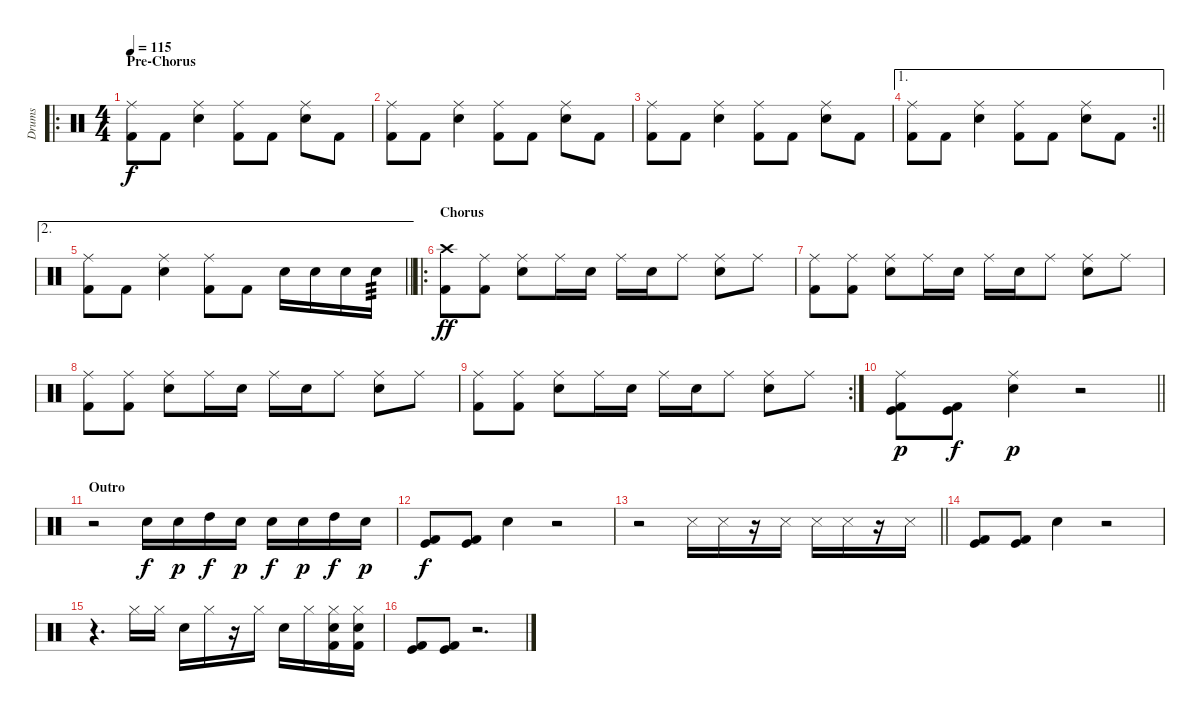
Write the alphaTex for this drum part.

\track ("Drums" "Drums") {instrument percussion}
\staff {score}
\articulation defaults
\ro
\ts (4 4)
\section ("" "Pre-Chorus")
\tempo 115
\clef neutral
\ks c
("Ride (middle)" "Kick (hit) 2").8{dy f} "Kick (hit) 2".8 ("Ride (middle)" "Electric Snare (hit)").4 ("Ride (middle)" "Kick (hit) 2").8 "Kick (hit) 2".8 ("Ride (middle)" "Electric Snare (hit)").8 "Kick (hit) 2".8 |
("Ride (middle)" "Kick (hit) 2").8 "Kick (hit) 2".8 ("Ride (middle)" "Electric Snare (hit)").4 ("Ride (middle)" "Kick (hit) 2").8 "Kick (hit) 2".8 ("Ride (middle)" "Electric Snare (hit)").8 "Kick (hit) 2".8 |
("Ride (middle)" "Kick (hit) 2").8 "Kick (hit) 2".8 ("Ride (middle)" "Electric Snare (hit)").4 ("Ride (middle)" "Kick (hit) 2").8 "Kick (hit) 2".8 ("Ride (middle)" "Electric Snare (hit)").8 "Kick (hit) 2".8 |
\ae 1
\rc 2
\barLineRight lightlight
("Ride (middle)" "Kick (hit) 2").8 "Kick (hit) 2".8 ("Ride (middle)" "Electric Snare (hit)").4 ("Ride (middle)" "Kick (hit) 2").8 "Kick (hit) 2".8 ("Ride (middle)" "Electric Snare (hit)").8 "Kick (hit) 2".8 |
\ae 2
\barLineRight lightlight
("Ride (middle)" "Kick (hit) 2").8 "Kick (hit) 2".8 ("Ride (middle)" "Electric Snare (hit)").4 ("Ride (middle)" "Kick (hit) 2").8 "Kick (hit) 2".8 "Snare (hit) 2".16 "Snare (hit) 2".16 "Snare (hit) 2".16 "Snare (hit) 2".16{tp 3} |
\ro
\section ("" "Chorus")
("Crash high (hit)" "Kick (hit) 2").8{dy ff} ("Ride (middle)" "Kick (hit) 2").8 ("Ride (middle)" "Snare (hit) 2").8 "Ride (middle)".16 "Snare (hit) 2".16 "Ride (middle)".16 "Snare (hit) 2".16 "Ride (middle)".8 ("Ride (middle)" "Snare (hit) 2").8 "Ride (middle)".8 |
("Ride (middle)" "Kick (hit) 2").8 ("Ride (middle)" "Kick (hit) 2").8 ("Ride (middle)" "Snare (hit) 2").8 "Ride (middle)".16 "Snare (hit) 2".16 "Ride (middle)".16 "Snare (hit) 2".16 "Ride (middle)".8 ("Ride (middle)" "Snare (hit) 2").8 "Ride (middle)".8 |
("Ride (middle)" "Kick (hit) 2").8 ("Ride (middle)" "Kick (hit) 2").8 ("Ride (middle)" "Snare (hit) 2").8 "Ride (middle)".16 "Snare (hit) 2".16 "Ride (middle)".16 "Snare (hit) 2".16 "Ride (middle)".8 ("Ride (middle)" "Snare (hit) 2").8 "Ride (middle)".8 |
\rc 2
("Ride (middle)" "Kick (hit) 2").8 ("Ride (middle)" "Kick (hit) 2").8 ("Ride (middle)" "Snare (hit) 2").8 "Ride (middle)".16 "Snare (hit) 2".16 "Ride (middle)".16 "Snare (hit) 2".16 "Ride (middle)".8 ("Ride (middle)" "Snare (hit) 2").8 "Ride (middle)".8 |
\barLineRight lightlight
("Ride (middle)" "Kick (hit)" "Kick (hit) 2").8{bd 60 dy p} ("Kick (hit)" "Kick (hit) 2").8{bd 60 dy f} ("Ride (middle)" "Snare (hit) 2").4{dy p} r.2 |
\section ("" "Outro")
r.2 "Snare (hit) 2".16{dy f} "Snare (hit) 2".16{dy p} "High Tom (hit)".16{dy f} "Snare (hit) 2".16{dy p} "Snare (hit) 2".16{dy f} "Snare (hit) 2".16{dy p} "High Tom (hit)".16{dy f} "Snare (hit) 2".16{dy p} |
("Kick (hit)" "Kick (hit) 2").8{bd 60 dy f} ("Kick (hit)" "Kick (hit) 2").8{bd 60} "Snare (hit) 2".4 r.2 |
\barLineRight lightlight
r.2 "Metronome (hit)".16 "Metronome (hit)".16 r.16 "Metronome (hit)".16 "Metronome (hit)".16 "Metronome (hit)".16 r.16 "Metronome (hit)".16 |
("Kick (hit)" "Kick (hit) 2").8{bd 60} ("Kick (hit)" "Kick (hit) 2").8{bd 60} "Snare (hit) 2".4 r.2 |
r.4{d} "Hi-Hat (closed)".16 "Hi-Hat (closed)".16 "Hand Clap (hit)".16 "Hi-Hat (closed)".16 r.16 "Hi-Hat (closed)".16 "Hand Clap (hit)".16 "Hi-Hat (closed)".16 ("Hi-Hat (closed)" "Kick (hit) 2" "Hand Clap (hit)").16 ("Hi-Hat (closed)" "Kick (hit) 2" "Hand Clap (hit)").16 |
("Kick (hit)" "Kick (hit) 2").8{bd 60} ("Kick (hit)" "Kick (hit) 2").8{bd 60} r.2{d}
